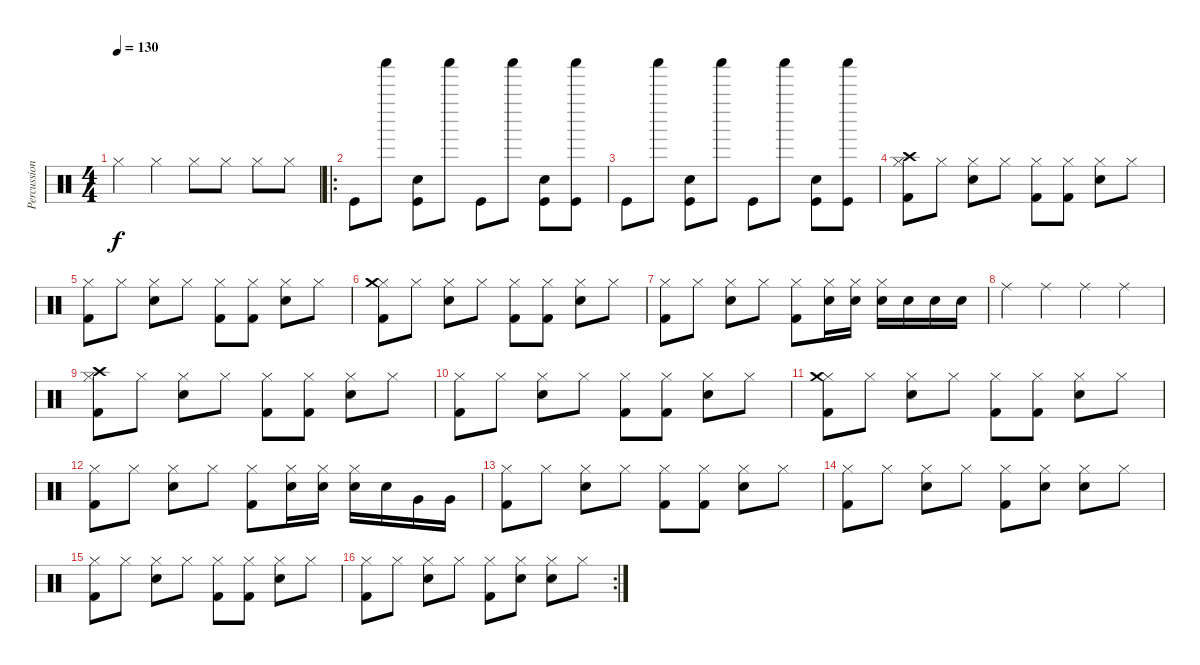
\track ("Percussion" "Percussion") {instrument percussion}
\staff {score}
\articulation defaults
\ts (4 4)
\tempo 130
\clef neutral
\ks c "Hi-Hat (closed)".4{dy f} "Hi-Hat (closed)".4 "Hi-Hat (closed)".8 "Hi-Hat (closed)".8 "Hi-Hat (closed)".8 "Hi-Hat (closed)".8
|
\ro "Kick (hit)".8 "Shaker (hit)".8
("Kick (hit)" "Electric Snare (hit)").8 "Shaker (hit)".8 "Kick (hit)".8 "Shaker (hit)".8 ("Kick (hit)" "Electric Snare (hit)").8 ("Kick (hit)" "Shaker (hit)").8 |
"Kick (hit)".8 "Shaker (hit)".8 ("Kick (hit)" "Electric Snare (hit)").8 "Shaker (hit)".8 "Kick (hit)".8 "Shaker (hit)".8 ("Kick (hit)" "Electric Snare (hit)").8 ("Kick (hit)" "Shaker (hit)").8 |
("Kick (hit) 2" "Hi-Hat (closed)" "Crash high (hit)").8 "Hi-Hat (closed)".8 ("Hi-Hat (closed)" "Electric Snare (hit)").8 "Hi-Hat (closed)".8 ("Hi-Hat (closed)" "Kick (hit) 2").8 ("Hi-Hat (closed)" "Kick (hit) 2").8 ("Hi-Hat (closed)" "Electric Snare (hit)").8 "Hi-Hat (closed)".8 |
("Kick (hit) 2" "Hi-Hat (closed)").8 "Hi-Hat (closed)".8 ("Hi-Hat (closed)" "Electric Snare (hit)").8 "Hi-Hat (closed)".8 ("Hi-Hat (closed)" "Kick (hit) 2").8 ("Hi-Hat (closed)" "Kick (hit) 2").8 ("Hi-Hat (closed)" "Electric Snare (hit)").8 "Hi-Hat (closed)".8 |
("Kick (hit) 2" "Hi-Hat (closed)" "Crash medium (hit)").8 "Hi-Hat (closed)".8 ("Hi-Hat (closed)" "Electric Snare (hit)").8 "Hi-Hat (closed)".8 ("Hi-Hat (closed)" "Kick (hit) 2").8 ("Hi-Hat (closed)" "Kick (hit) 2").8 ("Hi-Hat (closed)" "Electric Snare (hit)").8 "Hi-Hat (closed)".8 |
("Kick (hit) 2" "Hi-Hat (closed)").8 "Hi-Hat (closed)".8 ("Hi-Hat (closed)" "Electric Snare (hit)").8 "Hi-Hat (closed)".8 ("Hi-Hat (closed)" "Kick (hit) 2").8 ("Hi-Hat (closed)" "Electric Snare (hit)").16 ("Hi-Hat (closed)" "Electric Snare (hit)").16 ("Hi-Hat (closed)" "Electric Snare (hit)").16 "Electric Snare (hit)".16 "Electric Snare (hit)".16 "Electric Snare (hit)".16 |
"Ride (middle)".4 "Ride (middle)".4 "Ride (middle)".4 "Ride (middle)".4 |
("Kick (hit) 2" "Hi-Hat (closed)" "Crash high (hit)").8 "Hi-Hat (closed)".8 ("Hi-Hat (closed)" "Electric Snare (hit)").8 "Hi-Hat (closed)".8 ("Hi-Hat (closed)" "Kick (hit) 2").8 ("Hi-Hat (closed)" "Kick (hit) 2").8 ("Hi-Hat (closed)" "Electric Snare (hit)").8 "Hi-Hat (closed)".8 |
("Kick (hit) 2" "Hi-Hat (closed)").8 "Hi-Hat (closed)".8 ("Hi-Hat (closed)" "Electric Snare (hit)").8 "Hi-Hat (closed)".8 ("Hi-Hat (closed)" "Kick (hit) 2").8 ("Hi-Hat (closed)" "Kick (hit) 2").8 ("Hi-Hat (closed)" "Electric Snare (hit)").8 "Hi-Hat (closed)".8 |
("Kick (hit) 2" "Hi-Hat (closed)" "Crash medium (hit)").8 "Hi-Hat (closed)".8 ("Hi-Hat (closed)" "Electric Snare (hit)").8 "Hi-Hat (closed)".8 ("Hi-Hat (closed)" "Kick (hit) 2").8 ("Hi-Hat (closed)" "Kick (hit) 2").8 ("Hi-Hat (closed)" "Electric Snare (hit)").8 "Hi-Hat (closed)".8 |
("Kick (hit) 2" "Hi-Hat (closed)").8 "Hi-Hat (closed)".8 ("Hi-Hat (closed)" "Electric Snare (hit)").8 "Hi-Hat (closed)".8 ("Hi-Hat (closed)" "Kick (hit) 2").8 ("Hi-Hat (closed)" "Electric Snare (hit)").16 ("Hi-Hat (closed)" "Electric Snare (hit)").16 ("Hi-Hat (closed)" "Electric Snare (hit)").16 "Electric Snare (hit)".16 "Very Low Tom (hit)".16 "Very Low Tom (hit)".16 |
("Kick (hit) 2" "Hi-Hat (closed)").8 "Hi-Hat (closed)".8 ("Hi-Hat (closed)" "Electric Snare (hit)").8 "Hi-Hat (closed)".8 ("Hi-Hat (closed)" "Kick (hit) 2").8 ("Hi-Hat (closed)" "Kick (hit) 2").8 ("Hi-Hat (closed)" "Electric Snare (hit)").8 "Hi-Hat (closed)".8 |
("Kick (hit) 2" "Hi-Hat (closed)").8 "Hi-Hat (closed)".8 ("Hi-Hat (closed)" "Electric Snare (hit)").8 "Hi-Hat (closed)".8 ("Hi-Hat (closed)" "Kick (hit) 2").8 ("Hi-Hat (closed)" "Electric Snare (hit)").8 ("Hi-Hat (closed)" "Electric Snare (hit)").8 "Hi-Hat (closed)".8 |
("Kick (hit) 2" "Hi-Hat (closed)").8 "Hi-Hat (closed)".8 ("Hi-Hat (closed)" "Electric Snare (hit)").8 "Hi-Hat (closed)".8 ("Hi-Hat (closed)" "Kick (hit) 2").8 ("Hi-Hat (closed)" "Kick (hit) 2").8 ("Hi-Hat (closed)" "Electric Snare (hit)").8 "Hi-Hat (closed)".8 |
\rc 2
("Kick (hit) 2" "Hi-Hat (closed)").8 "Hi-Hat (closed)".8 ("Hi-Hat (closed)" "Electric Snare (hit)").8 "Hi-Hat (closed)".8 ("Hi-Hat (closed)" "Kick (hit) 2").8 ("Hi-Hat (closed)" "Electric Snare (hit)").8 ("Hi-Hat (closed)" "Electric Snare (hit)").8 "Hi-Hat (closed)".8
